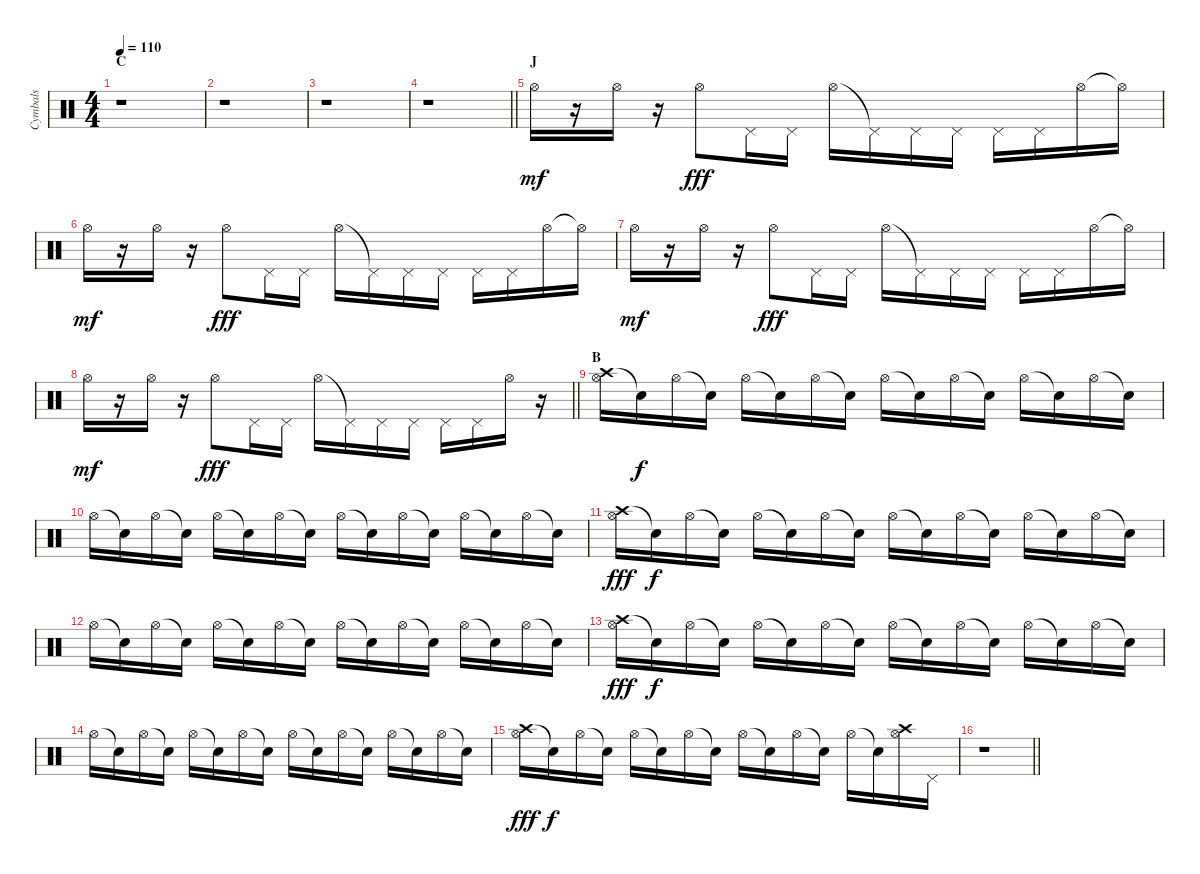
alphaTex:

\track ("Cymbals" "Cymbals") {instrument percussion}
\staff {score}
\articulation defaults
\ts (4 4)
\section ("" "C")
\tempo 110
\clef neutral
\ks c
r.1{dy fff} |
r.1 |
r.1 |
\barLineRight lightlight
r.1 |
\section ("" "J")
"Hi-Hat (open)".16{dy mf} r.16 "Hi-Hat (open)".16 r.16 "Hi-Hat (open)".8{dy fff} "Pedal Hi-Hat (hit)".16 "Pedal Hi-Hat (hit)".16 "Hi-Hat (open)".16 "Pedal Hi-Hat (hit)"{t}.16 "Pedal Hi-Hat (hit)".16 "Pedal Hi-Hat (hit)".16 "Pedal Hi-Hat (hit)".16 "Pedal Hi-Hat (hit)".16 "Hi-Hat (open)".16 "Hi-Hat (open)"{t}.16 |
"Hi-Hat (open)".16{dy mf} r.16 "Hi-Hat (open)".16 r.16 "Hi-Hat (open)".8{dy fff} "Pedal Hi-Hat (hit)".16 "Pedal Hi-Hat (hit)".16 "Hi-Hat (open)".16 "Pedal Hi-Hat (hit)"{t}.16 "Pedal Hi-Hat (hit)".16 "Pedal Hi-Hat (hit)".16 "Pedal Hi-Hat (hit)".16 "Pedal Hi-Hat (hit)".16 "Hi-Hat (open)".16 "Hi-Hat (open)"{t}.16 |
"Hi-Hat (open)".16{dy mf} r.16 "Hi-Hat (open)".16 r.16 "Hi-Hat (open)".8{dy fff} "Pedal Hi-Hat (hit)".16 "Pedal Hi-Hat (hit)".16 "Hi-Hat (open)".16 "Pedal Hi-Hat (hit)"{t}.16 "Pedal Hi-Hat (hit)".16 "Pedal Hi-Hat (hit)".16 "Pedal Hi-Hat (hit)".16 "Pedal Hi-Hat (hit)".16 "Hi-Hat (open)".16 "Hi-Hat (open)"{t}.16 |
\barLineRight lightlight "Hi-Hat (open)".16{dy mf}
r.16 "Hi-Hat (open)".16 r.16 "Hi-Hat (open)".8{dy fff} "Pedal Hi-Hat (hit)".16 "Pedal Hi-Hat (hit)".16 "Hi-Hat (open)".16 "Pedal Hi-Hat (hit)"{t}.16 "Pedal Hi-Hat (hit)".16 "Pedal Hi-Hat (hit)".16 "Pedal Hi-Hat (hit)".16 "Pedal Hi-Hat (hit)".16 "Hi-Hat (open)".16 r.16 |
\section ("" "B")
("Crash high (hit)" "Hi-Hat (open)").16 "Snare (hit)"{t}.16{dy f} "Hi-Hat (open)".16 "Snare (hit)"{t}.16 "Hi-Hat (open)".16 "Snare (hit)"{t}.16 "Hi-Hat (open)".16 "Snare (hit)"{t}.16 "Hi-Hat (open)".16 "Snare (hit)"{t}.16 "Hi-Hat (open)".16 "Snare (hit)"{t}.16 "Hi-Hat (open)".16 "Snare (hit)"{t}.16 "Hi-Hat (open)".16 "Snare (hit)"{t}.16 |
"Hi-Hat (open)".16 "Snare (hit)"{t}.16 "Hi-Hat (open)".16 "Snare (hit)"{t}.16 "Hi-Hat (open)".16 "Snare (hit)"{t}.16 "Hi-Hat (open)".16 "Snare (hit)"{t}.16 "Hi-Hat (open)".16 "Snare (hit)"{t}.16 "Hi-Hat (open)".16 "Snare (hit)"{t}.16 "Hi-Hat (open)".16 "Snare (hit)"{t}.16 "Hi-Hat (open)".16 "Snare (hit)"{t}.16 |
("Crash high (hit)" "Hi-Hat (open)").16{dy fff} "Snare (hit)"{t}.16{dy f} "Hi-Hat (open)".16 "Snare (hit)"{t}.16 "Hi-Hat (open)".16 "Snare (hit)"{t}.16 "Hi-Hat (open)".16 "Snare (hit)"{t}.16 "Hi-Hat (open)".16 "Snare (hit)"{t}.16 "Hi-Hat (open)".16 "Snare (hit)"{t}.16 "Hi-Hat (open)".16 "Snare (hit)"{t}.16 "Hi-Hat (open)".16 "Snare (hit)"{t}.16 |
"Hi-Hat (open)".16 "Snare (hit)"{t}.16 "Hi-Hat (open)".16 "Snare (hit)"{t}.16 "Hi-Hat (open)".16 "Snare (hit)"{t}.16 "Hi-Hat (open)".16 "Snare (hit)"{t}.16 "Hi-Hat (open)".16 "Snare (hit)"{t}.16 "Hi-Hat (open)".16 "Snare (hit)"{t}.16 "Hi-Hat (open)".16 "Snare (hit)"{t}.16 "Hi-Hat (open)".16 "Snare (hit)"{t}.16 |
("Crash high (hit)" "Hi-Hat (open)").16{dy fff} "Snare (hit)"{t}.16{dy f} "Hi-Hat (open)".16 "Snare (hit)"{t}.16 "Hi-Hat (open)".16 "Snare (hit)"{t}.16 "Hi-Hat (open)".16 "Snare (hit)"{t}.16 "Hi-Hat (open)".16 "Snare (hit)"{t}.16 "Hi-Hat (open)".16 "Snare (hit)"{t}.16 "Hi-Hat (open)".16 "Snare (hit)"{t}.16 "Hi-Hat (open)".16 "Snare (hit)"{t}.16 |
"Hi-Hat (open)".16 "Snare (hit)"{t}.16 "Hi-Hat (open)".16 "Snare (hit)"{t}.16 "Hi-Hat (open)".16 "Snare (hit)"{t}.16 "Hi-Hat (open)".16 "Snare (hit)"{t}.16 "Hi-Hat (open)".16 "Snare (hit)"{t}.16 "Hi-Hat (open)".16 "Snare (hit)"{t}.16 "Hi-Hat (open)".16 "Snare (hit)"{t}.16 "Hi-Hat (open)".16 "Snare (hit)"{t}.16 |
("Crash high (hit)" "Hi-Hat (open)").16{dy fff} "Snare (hit)"{t}.16{dy f} "Hi-Hat (open)".16 "Snare (hit)"{t}.16 "Hi-Hat (open)".16 "Snare (hit)"{t}.16 "Hi-Hat (open)".16 "Snare (hit)"{t}.16 "Hi-Hat (open)".16 "Snare (hit)"{t}.16 "Hi-Hat (open)".16 "Snare (hit)"{t}.16 "Hi-Hat (open)".16 "Snare (hit)"{t}.16 ("Crash high (hit)" "Hi-Hat (open)").16 "Pedal Hi-Hat (hit)".16 |
\barLineRight lightlight
r.1
